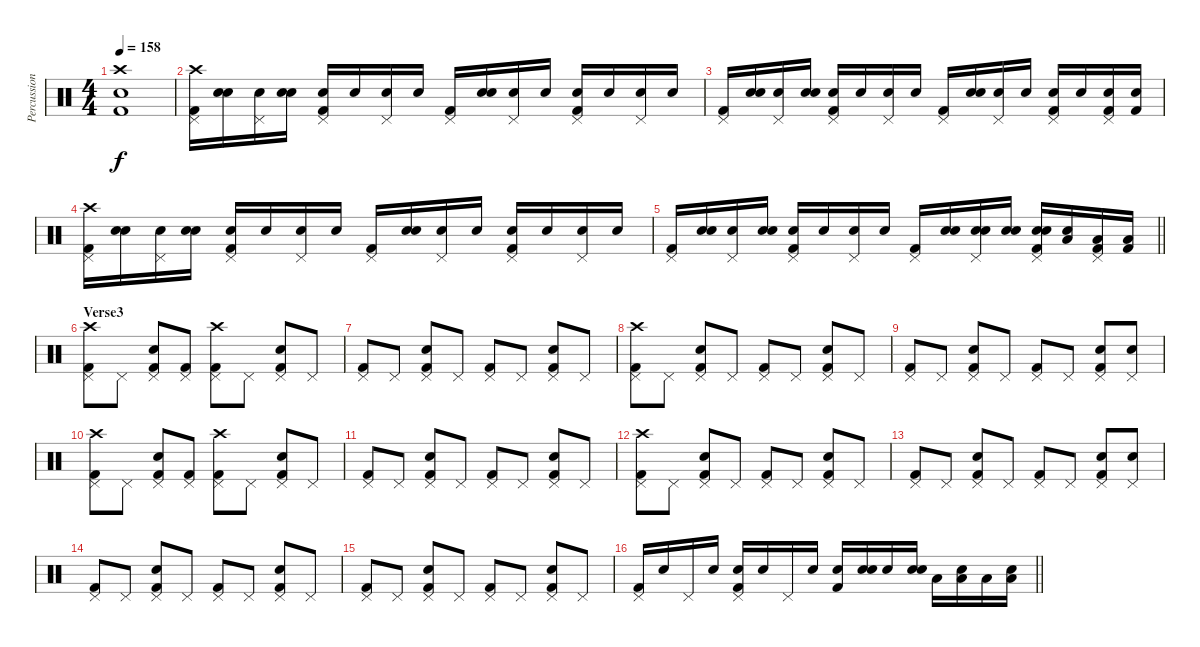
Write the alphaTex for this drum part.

\track ("Percussion" "Percussion") {instrument percussion}
\staff {score}
\articulation defaults
\ts (4 4)
\tempo 158
\clef neutral
\ks c
("Crash high (hit)" "Snare (hit) 2" "Kick (hit) 2").1{dy f} |
("Kick (hit) 2" "Crash high (hit)" "Pedal Hi-Hat (hit)").16 ("Snare (hit)" "Snare (hit)").16 ("Snare (hit)" "Pedal Hi-Hat (hit)").16 ("Snare (hit)" "Snare (hit)").16 ("Kick (hit) 2" "Electric Snare (hit)" "Pedal Hi-Hat (hit)").16 "Snare (hit)".16 ("Snare (hit)" "Pedal Hi-Hat (hit)").16 "Snare (hit)".16 ("Kick (hit) 2" "Pedal Hi-Hat (hit)").16 ("Snare (hit)" "Snare (hit)").16 ("Snare (hit)" "Pedal Hi-Hat (hit)").16 "Snare (hit)".16 ("Kick (hit) 2" "Electric Snare (hit)" "Pedal Hi-Hat (hit)").16 "Snare (hit)".16 ("Snare (hit)" "Pedal Hi-Hat (hit)").16 "Snare (hit)".16 |
("Kick (hit) 2" "Pedal Hi-Hat (hit)").16 ("Snare (hit)" "Snare (hit)").16 ("Snare (hit)" "Pedal Hi-Hat (hit)").16 ("Snare (hit)" "Snare (hit)").16 ("Kick (hit) 2" "Electric Snare (hit)" "Pedal Hi-Hat (hit)").16 "Snare (hit)".16 ("Snare (hit)" "Pedal Hi-Hat (hit)").16 "Snare (hit)".16 ("Kick (hit) 2" "Pedal Hi-Hat (hit)").16 ("Snare (hit)" "Snare (hit)").16 ("Snare (hit)" "Pedal Hi-Hat (hit)").16 "Snare (hit)".16 ("Kick (hit) 2" "Electric Snare (hit)" "Pedal Hi-Hat (hit)").16 "Snare (hit)".16 ("Kick (hit) 2" "Snare (hit) 2" "Pedal Hi-Hat (hit)").16 ("Kick (hit) 2" "Snare (hit) 2").16 |
("Kick (hit) 2" "Crash high (hit)" "Pedal Hi-Hat (hit)").16 ("Snare (hit)" "Snare (hit)").16 ("Snare (hit)" "Pedal Hi-Hat (hit)").16 ("Snare (hit)" "Snare (hit)").16 ("Kick (hit) 2" "Electric Snare (hit)" "Pedal Hi-Hat (hit)").16 "Snare (hit)".16 ("Snare (hit)" "Pedal Hi-Hat (hit)").16 "Snare (hit)".16 ("Kick (hit) 2" "Pedal Hi-Hat (hit)").16 ("Snare (hit)" "Snare (hit)").16 ("Snare (hit)" "Pedal Hi-Hat (hit)").16 "Snare (hit)".16 ("Kick (hit) 2" "Electric Snare (hit)" "Pedal Hi-Hat (hit)").16 "Snare (hit)".16 ("Snare (hit)" "Pedal Hi-Hat (hit)").16 "Snare (hit)".16 |
\barLineRight lightlight
("Kick (hit) 2" "Pedal Hi-Hat (hit)").16 ("Snare (hit)" "Snare (hit)").16 ("Snare (hit)" "Pedal Hi-Hat (hit)").16 ("Snare (hit)" "Snare (hit)").16 ("Kick (hit) 2" "Electric Snare (hit)" "Pedal Hi-Hat (hit)").16 "Snare (hit)".16 ("Snare (hit)" "Pedal Hi-Hat (hit)").16 "Snare (hit)".16 ("Kick (hit) 2" "Pedal Hi-Hat (hit)").16 ("Snare (hit)" "Snare (hit)").16 ("Snare (hit)" "Snare (hit) 2" "Pedal Hi-Hat (hit)").16 ("Snare (hit)" "Snare (hit) 2").16 ("Kick (hit) 2" "Snare (hit) 2" "Electric Snare (hit)" "Pedal Hi-Hat (hit)").16 ("Snare (hit)" "Low Tom (hit)").16 ("Kick (hit) 2" "Low Tom (hit)" "Pedal Hi-Hat (hit)").16 ("Kick (hit) 2" "Low Tom (hit)").16 |
\section ("" "Verse3")
("Crash high (hit)" "Kick (hit) 2" "Pedal Hi-Hat (hit)").8 "Pedal Hi-Hat (hit)".8 ("Snare (hit) 2" "Kick (hit) 2" "Pedal Hi-Hat (hit)").8 ("Kick (hit) 2" "Pedal Hi-Hat (hit)").8 ("Crash high (hit)" "Kick (hit) 2" "Pedal Hi-Hat (hit)").8 "Pedal Hi-Hat (hit)".8 ("Snare (hit) 2" "Kick (hit) 2" "Pedal Hi-Hat (hit)").8 "Pedal Hi-Hat (hit)".8 |
("Kick (hit) 2" "Pedal Hi-Hat (hit)").8 "Pedal Hi-Hat (hit)".8 ("Snare (hit) 2" "Kick (hit) 2" "Pedal Hi-Hat (hit)").8 "Pedal Hi-Hat (hit)".8 ("Kick (hit) 2" "Pedal Hi-Hat (hit)").8 "Pedal Hi-Hat (hit)".8 ("Snare (hit) 2" "Kick (hit) 2" "Pedal Hi-Hat (hit)").8 "Pedal Hi-Hat (hit)".8 |
("Crash high (hit)" "Kick (hit) 2" "Pedal Hi-Hat (hit)").8 "Pedal Hi-Hat (hit)".8 ("Snare (hit) 2" "Kick (hit) 2" "Pedal Hi-Hat (hit)").8 "Pedal Hi-Hat (hit)".8 ("Kick (hit) 2" "Pedal Hi-Hat (hit)").8 "Pedal Hi-Hat (hit)".8 ("Snare (hit) 2" "Kick (hit) 2" "Pedal Hi-Hat (hit)").8 "Pedal Hi-Hat (hit)".8 |
("Kick (hit) 2" "Pedal Hi-Hat (hit)").8 "Pedal Hi-Hat (hit)".8 ("Snare (hit) 2" "Kick (hit) 2" "Pedal Hi-Hat (hit)").8 "Pedal Hi-Hat (hit)".8 ("Kick (hit) 2" "Pedal Hi-Hat (hit)").8 "Pedal Hi-Hat (hit)".8 ("Snare (hit) 2" "Kick (hit) 2" "Pedal Hi-Hat (hit)").8 ("Snare (hit) 2" "Pedal Hi-Hat (hit)").8 |
("Crash high (hit)" "Kick (hit) 2" "Pedal Hi-Hat (hit)").8 "Pedal Hi-Hat (hit)".8 ("Snare (hit) 2" "Kick (hit) 2" "Pedal Hi-Hat (hit)").8 ("Kick (hit) 2" "Pedal Hi-Hat (hit)").8 ("Crash high (hit)" "Kick (hit) 2" "Pedal Hi-Hat (hit)").8 "Pedal Hi-Hat (hit)".8 ("Snare (hit) 2" "Kick (hit) 2" "Pedal Hi-Hat (hit)").8 "Pedal Hi-Hat (hit)".8 |
("Kick (hit) 2" "Pedal Hi-Hat (hit)").8 "Pedal Hi-Hat (hit)".8 ("Snare (hit) 2" "Kick (hit) 2" "Pedal Hi-Hat (hit)").8 "Pedal Hi-Hat (hit)".8 ("Kick (hit) 2" "Pedal Hi-Hat (hit)").8 "Pedal Hi-Hat (hit)".8 ("Snare (hit) 2" "Kick (hit) 2" "Pedal Hi-Hat (hit)").8 "Pedal Hi-Hat (hit)".8 |
("Crash high (hit)" "Kick (hit) 2" "Pedal Hi-Hat (hit)").8 "Pedal Hi-Hat (hit)".8 ("Snare (hit) 2" "Kick (hit) 2" "Pedal Hi-Hat (hit)").8 "Pedal Hi-Hat (hit)".8 ("Kick (hit) 2" "Pedal Hi-Hat (hit)").8 "Pedal Hi-Hat (hit)".8 ("Snare (hit) 2" "Kick (hit) 2" "Pedal Hi-Hat (hit)").8 "Pedal Hi-Hat (hit)".8 |
("Kick (hit) 2" "Pedal Hi-Hat (hit)").8 "Pedal Hi-Hat (hit)".8 ("Snare (hit) 2" "Kick (hit) 2" "Pedal Hi-Hat (hit)").8 "Pedal Hi-Hat (hit)".8 ("Kick (hit) 2" "Pedal Hi-Hat (hit)").8 "Pedal Hi-Hat (hit)".8 ("Snare (hit) 2" "Kick (hit) 2" "Pedal Hi-Hat (hit)").8 ("Snare (hit) 2" "Pedal Hi-Hat (hit)").8 |
("Kick (hit) 2" "Pedal Hi-Hat (hit)").8 "Pedal Hi-Hat (hit)".8 ("Snare (hit) 2" "Kick (hit) 2" "Pedal Hi-Hat (hit)").8 "Pedal Hi-Hat (hit)".8 ("Kick (hit) 2" "Pedal Hi-Hat (hit)").8 "Pedal Hi-Hat (hit)".8 ("Snare (hit) 2" "Kick (hit) 2" "Pedal Hi-Hat (hit)").8 "Pedal Hi-Hat (hit)".8 |
("Kick (hit) 2" "Pedal Hi-Hat (hit)").8 "Pedal Hi-Hat (hit)".8 ("Snare (hit) 2" "Kick (hit) 2" "Pedal Hi-Hat (hit)").8 "Pedal Hi-Hat (hit)".8 ("Kick (hit) 2" "Pedal Hi-Hat (hit)").8 "Pedal Hi-Hat (hit)".8 ("Snare (hit) 2" "Kick (hit) 2" "Pedal Hi-Hat (hit)").8 "Pedal Hi-Hat (hit)".8 |
\barLineRight lightlight
("Kick (hit) 2" "Pedal Hi-Hat (hit)").16 "Snare (hit)".16 "Pedal Hi-Hat (hit)".16 "Snare (hit)".16 ("Snare (hit) 2" "Kick (hit) 2" "Pedal Hi-Hat (hit)").16 "Snare (hit)".16 "Pedal Hi-Hat (hit)".16 "Snare (hit)".16 ("Snare (hit) 2" "Kick (hit) 2").16 ("Snare (hit) 2" "Snare (hit)").16 "Snare (hit) 2".16 ("Snare (hit) 2" "Snare (hit)").16 "Low Tom (hit)".16 ("Low Tom (hit)" "Snare (hit)").16 "Low Tom (hit)".16 ("Low Tom (hit)" "Snare (hit)").16
